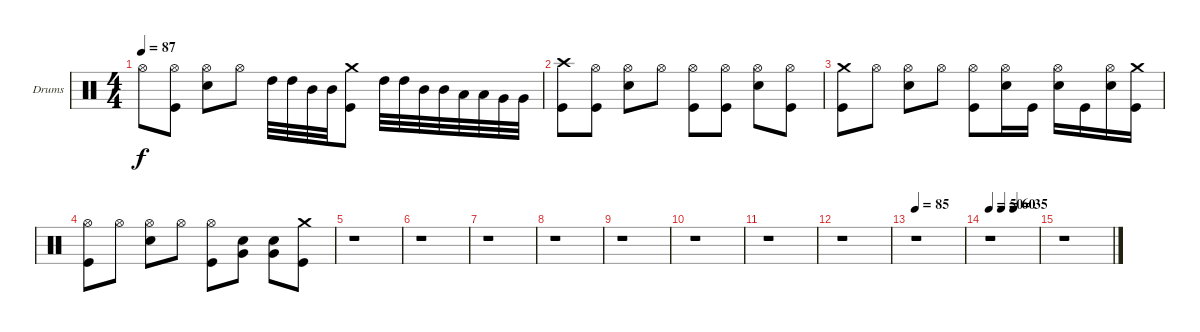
\bracketExtendMode groupsimilarinstruments
\firstSystemTrackNameOrientation horizontal
\otherSystemsTrackNameOrientation horizontal
\track ("Drumkit" "Drums") {instrument percussion}
\staff {score}
\articulation defaults
\ts (4 4)
\tempo 87
\clef neutral
\ks c "Hi-Hat (open)".8{dy f}
("Hi-Hat (open)" "Kick (hit)").8 ("Hi-Hat (open)" "Snare (hit) 2").8 "Hi-Hat (open)".8 "High Tom (hit)".32 "High Tom (hit)".32 "Mid Tom (hit)".32 "Mid Tom (hit)".32 ("Crash medium (hit)" "Kick (hit)").8 "High Tom (hit)".32 "High Tom (hit)".32 "Mid Tom (hit)".32 "Mid Tom (hit)".32 "Low Tom (hit)".32 "Low Tom (hit)".32 "Very Low Tom (hit)".32 "Very Low Tom (hit)".32 |
("Crash high (hit)" "Kick (hit)").8 ("Hi-Hat (open)" "Kick (hit)").8 ("Hi-Hat (open)" "Snare (hit) 2").8 "Hi-Hat (open)".8 ("Hi-Hat (open)" "Kick (hit)").8 ("Hi-Hat (open)" "Kick (hit)").8 ("Hi-Hat (open)" "Snare (hit) 2").8 ("Hi-Hat (open)" "Kick (hit)").8 |
("Crash medium (hit)" "Kick (hit)").8 "Hi-Hat (open)".8 ("Hi-Hat (open)" "Snare (hit) 2").8 "Hi-Hat (open)".8 ("Hi-Hat (open)" "Kick (hit)").8 ("Hi-Hat (open)" "Snare (hit) 2").16 "Kick (hit)".16 ("Hi-Hat (open)" "Snare (hit) 2").16 "Kick (hit)".16 ("Hi-Hat (open)" "Snare (hit) 2").16 ("Crash medium (hit)" "Kick (hit)").16 |
("Hi-Hat (open)" "Kick (hit)").8 "Hi-Hat (open)".8 ("Hi-Hat (open)" "Snare (hit) 2").8 "Hi-Hat (open)".8 ("Hi-Hat (open)" "Kick (hit)").8 ("Very Low Tom (hit)" "Snare (hit) 2").8 ("Very Low Tom (hit)" "Snare (hit) 2").8 ("Crash medium (hit)" "Kick (hit)").8 |
r.1 |
r.1 |
r.1 |
r.1 |
r.1 |
r.1 |
r.1 |
r.1 |
\tempo 85
r.1 |
\tempo 50
\tempo (60 0.25)
\tempo (35 0.5)
r.1 |
r.1
